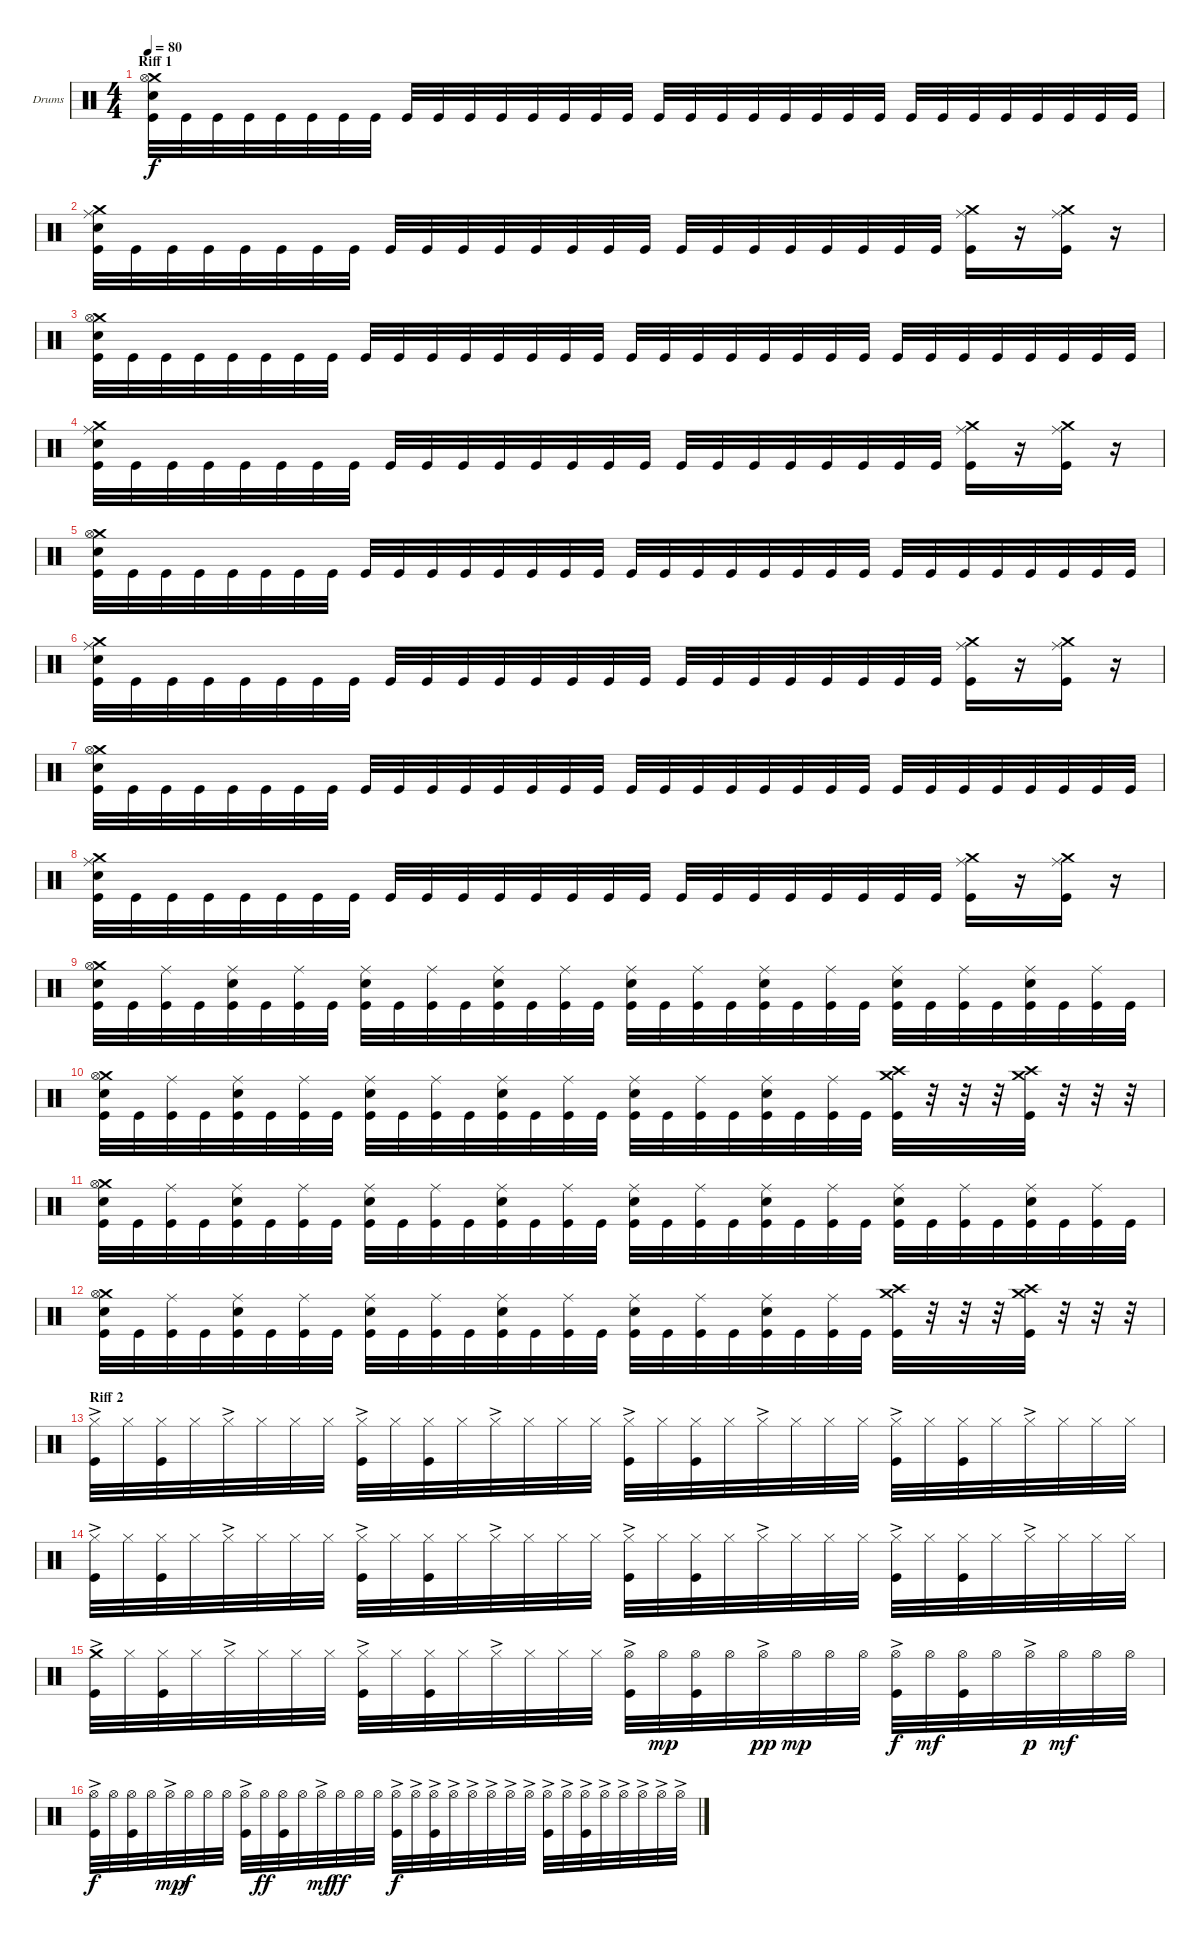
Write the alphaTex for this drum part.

\bracketExtendMode groupsimilarinstruments
\firstSystemTrackNameOrientation horizontal
\otherSystemsTrackNameOrientation horizontal
\track ("Drumkit" "Drums") {instrument percussion}
\staff {score}
\articulation defaults
\ts (4 4)
\section ("" "Riff 1")
\tempo 80
\clef neutral
\ks c
("Crash medium (hit)" "Hi-Hat (open)" "Snare (hit) 2" "Kick (hit)").32{dy f} "Kick (hit)".32 "Kick (hit)".32 "Kick (hit)".32 "Kick (hit)".32 "Kick (hit)".32 "Kick (hit)".32 "Kick (hit)".32 "Kick (hit)".32 "Kick (hit)".32 "Kick (hit)".32 "Kick (hit)".32 "Kick (hit)".32 "Kick (hit)".32 "Kick (hit)".32 "Kick (hit)".32 "Kick (hit)".32 "Kick (hit)".32 "Kick (hit)".32 "Kick (hit)".32 "Kick (hit)".32 "Kick (hit)".32 "Kick (hit)".32 "Kick (hit)".32 "Kick (hit)".32 "Kick (hit)".32 "Kick (hit)".32 "Kick (hit)".32 "Kick (hit)".32 "Kick (hit)".32 "Kick (hit)".32 "Kick (hit)".32 |
("Crash medium (hit)" "Ride (middle)" "Snare (hit) 2" "Kick (hit)").32 "Kick (hit)".32 "Kick (hit)".32 "Kick (hit)".32 "Kick (hit)".32 "Kick (hit)".32 "Kick (hit)".32 "Kick (hit)".32 "Kick (hit)".32 "Kick (hit)".32 "Kick (hit)".32 "Kick (hit)".32 "Kick (hit)".32 "Kick (hit)".32 "Kick (hit)".32 "Kick (hit)".32 "Kick (hit)".32 "Kick (hit)".32 "Kick (hit)".32 "Kick (hit)".32 "Kick (hit)".32 "Kick (hit)".32 "Kick (hit)".32 "Kick (hit)".32 ("Crash medium (hit)" "Ride (middle)" "Kick (hit)").16 r.16 ("Crash medium (hit)" "Ride (middle)" "Kick (hit)").16 r.16 |
("Crash medium (hit)" "Hi-Hat (open)" "Snare (hit) 2" "Kick (hit)").32 "Kick (hit)".32 "Kick (hit)".32 "Kick (hit)".32 "Kick (hit)".32 "Kick (hit)".32 "Kick (hit)".32 "Kick (hit)".32 "Kick (hit)".32 "Kick (hit)".32 "Kick (hit)".32 "Kick (hit)".32 "Kick (hit)".32 "Kick (hit)".32 "Kick (hit)".32 "Kick (hit)".32 "Kick (hit)".32 "Kick (hit)".32 "Kick (hit)".32 "Kick (hit)".32 "Kick (hit)".32 "Kick (hit)".32 "Kick (hit)".32 "Kick (hit)".32 "Kick (hit)".32 "Kick (hit)".32 "Kick (hit)".32 "Kick (hit)".32 "Kick (hit)".32 "Kick (hit)".32 "Kick (hit)".32 "Kick (hit)".32 |
("Crash medium (hit)" "Ride (middle)" "Snare (hit) 2" "Kick (hit)").32 "Kick (hit)".32 "Kick (hit)".32 "Kick (hit)".32 "Kick (hit)".32 "Kick (hit)".32 "Kick (hit)".32 "Kick (hit)".32 "Kick (hit)".32 "Kick (hit)".32 "Kick (hit)".32 "Kick (hit)".32 "Kick (hit)".32 "Kick (hit)".32 "Kick (hit)".32 "Kick (hit)".32 "Kick (hit)".32 "Kick (hit)".32 "Kick (hit)".32 "Kick (hit)".32 "Kick (hit)".32 "Kick (hit)".32 "Kick (hit)".32 "Kick (hit)".32 ("Crash medium (hit)" "Ride (middle)" "Kick (hit)").16 r.16 ("Crash medium (hit)" "Ride (middle)" "Kick (hit)").16 r.16 |
("Crash medium (hit)" "Hi-Hat (open)" "Snare (hit) 2" "Kick (hit)").32 "Kick (hit)".32 "Kick (hit)".32 "Kick (hit)".32 "Kick (hit)".32 "Kick (hit)".32 "Kick (hit)".32 "Kick (hit)".32 "Kick (hit)".32 "Kick (hit)".32 "Kick (hit)".32 "Kick (hit)".32 "Kick (hit)".32 "Kick (hit)".32 "Kick (hit)".32 "Kick (hit)".32 "Kick (hit)".32 "Kick (hit)".32 "Kick (hit)".32 "Kick (hit)".32 "Kick (hit)".32 "Kick (hit)".32 "Kick (hit)".32 "Kick (hit)".32 "Kick (hit)".32 "Kick (hit)".32 "Kick (hit)".32 "Kick (hit)".32 "Kick (hit)".32 "Kick (hit)".32 "Kick (hit)".32 "Kick (hit)".32 |
("Crash medium (hit)" "Ride (middle)" "Snare (hit) 2" "Kick (hit)").32 "Kick (hit)".32 "Kick (hit)".32 "Kick (hit)".32 "Kick (hit)".32 "Kick (hit)".32 "Kick (hit)".32 "Kick (hit)".32 "Kick (hit)".32 "Kick (hit)".32 "Kick (hit)".32 "Kick (hit)".32 "Kick (hit)".32 "Kick (hit)".32 "Kick (hit)".32 "Kick (hit)".32 "Kick (hit)".32 "Kick (hit)".32 "Kick (hit)".32 "Kick (hit)".32 "Kick (hit)".32 "Kick (hit)".32 "Kick (hit)".32 "Kick (hit)".32 ("Crash medium (hit)" "Ride (middle)" "Kick (hit)").16 r.16 ("Crash medium (hit)" "Ride (middle)" "Kick (hit)").16 r.16 |
("Crash medium (hit)" "Hi-Hat (open)" "Snare (hit) 2" "Kick (hit)").32 "Kick (hit)".32 "Kick (hit)".32 "Kick (hit)".32 "Kick (hit)".32 "Kick (hit)".32 "Kick (hit)".32 "Kick (hit)".32 "Kick (hit)".32 "Kick (hit)".32 "Kick (hit)".32 "Kick (hit)".32 "Kick (hit)".32 "Kick (hit)".32 "Kick (hit)".32 "Kick (hit)".32 "Kick (hit)".32 "Kick (hit)".32 "Kick (hit)".32 "Kick (hit)".32 "Kick (hit)".32 "Kick (hit)".32 "Kick (hit)".32 "Kick (hit)".32 "Kick (hit)".32 "Kick (hit)".32 "Kick (hit)".32 "Kick (hit)".32 "Kick (hit)".32 "Kick (hit)".32 "Kick (hit)".32 "Kick (hit)".32 |
("Crash medium (hit)" "Ride (middle)" "Snare (hit) 2" "Kick (hit)").32 "Kick (hit)".32 "Kick (hit)".32 "Kick (hit)".32 "Kick (hit)".32 "Kick (hit)".32 "Kick (hit)".32 "Kick (hit)".32 "Kick (hit)".32 "Kick (hit)".32 "Kick (hit)".32 "Kick (hit)".32 "Kick (hit)".32 "Kick (hit)".32 "Kick (hit)".32 "Kick (hit)".32 "Kick (hit)".32 "Kick (hit)".32 "Kick (hit)".32 "Kick (hit)".32 "Kick (hit)".32 "Kick (hit)".32 "Kick (hit)".32 "Kick (hit)".32 ("Crash medium (hit)" "Ride (middle)" "Kick (hit)").16 r.16 ("Crash medium (hit)" "Ride (middle)" "Kick (hit)").16 r.16 |
("Crash medium (hit)" "Hi-Hat (open)" "Snare (hit) 2" "Kick (hit)").32 "Kick (hit)".32 ("Ride (middle)" "Kick (hit)").32 "Kick (hit)".32 ("Ride (middle)" "Snare (hit) 2" "Kick (hit)").32 "Kick (hit)".32 ("Ride (middle)" "Kick (hit)").32 "Kick (hit)".32 ("Ride (middle)" "Snare (hit) 2" "Kick (hit)").32 "Kick (hit)".32 ("Ride (middle)" "Kick (hit)").32 "Kick (hit)".32 ("Ride (middle)" "Snare (hit) 2" "Kick (hit)").32 "Kick (hit)".32 ("Ride (middle)" "Kick (hit)").32 "Kick (hit)".32 ("Ride (middle)" "Snare (hit) 2" "Kick (hit)").32 "Kick (hit)".32 ("Ride (middle)" "Kick (hit)").32 "Kick (hit)".32 ("Ride (middle)" "Snare (hit) 2" "Kick (hit)").32 "Kick (hit)".32 ("Ride (middle)" "Kick (hit)").32 "Kick (hit)".32 ("Ride (middle)" "Snare (hit) 2" "Kick (hit)").32 "Kick (hit)".32 ("Ride (middle)" "Kick (hit)").32 "Kick (hit)".32 ("Ride (middle)" "Snare (hit) 2" "Kick (hit)").32 "Kick (hit)".32 ("Ride (middle)" "Kick (hit)").32 "Kick (hit)".32 |
("Crash medium (hit)" "Hi-Hat (open)" "Snare (hit) 2" "Kick (hit)").32 "Kick (hit)".32 ("Ride (middle)" "Kick (hit)").32 "Kick (hit)".32 ("Ride (middle)" "Snare (hit) 2" "Kick (hit)").32 "Kick (hit)".32 ("Ride (middle)" "Kick (hit)").32 "Kick (hit)".32 ("Ride (middle)" "Snare (hit) 2" "Kick (hit)").32 "Kick (hit)".32 ("Ride (middle)" "Kick (hit)").32 "Kick (hit)".32 ("Ride (middle)" "Snare (hit) 2" "Kick (hit)").32 "Kick (hit)".32 ("Ride (middle)" "Kick (hit)").32 "Kick (hit)".32 ("Ride (middle)" "Snare (hit) 2" "Kick (hit)").32 "Kick (hit)".32 ("Ride (middle)" "Kick (hit)").32 "Kick (hit)".32 ("Ride (middle)" "Snare (hit) 2" "Kick (hit)").32 "Kick (hit)".32 ("Ride (middle)" "Kick (hit)").32 "Kick (hit)".32 ("Crash medium (hit)" "Crash high (hit)" "Kick (hit)").32 r.32 r.32 r.32 ("Crash medium (hit)" "Crash high (hit)" "Kick (hit)").32 r.32 r.32 r.32 |
("Crash medium (hit)" "Hi-Hat (open)" "Snare (hit) 2" "Kick (hit)").32 "Kick (hit)".32 ("Ride (middle)" "Kick (hit)").32 "Kick (hit)".32 ("Ride (middle)" "Snare (hit) 2" "Kick (hit)").32 "Kick (hit)".32 ("Ride (middle)" "Kick (hit)").32 "Kick (hit)".32 ("Ride (middle)" "Snare (hit) 2" "Kick (hit)").32 "Kick (hit)".32 ("Ride (middle)" "Kick (hit)").32 "Kick (hit)".32 ("Ride (middle)" "Snare (hit) 2" "Kick (hit)").32 "Kick (hit)".32 ("Ride (middle)" "Kick (hit)").32 "Kick (hit)".32 ("Ride (middle)" "Snare (hit) 2" "Kick (hit)").32 "Kick (hit)".32 ("Ride (middle)" "Kick (hit)").32 "Kick (hit)".32 ("Ride (middle)" "Snare (hit) 2" "Kick (hit)").32 "Kick (hit)".32 ("Ride (middle)" "Kick (hit)").32 "Kick (hit)".32 ("Ride (middle)" "Snare (hit) 2" "Kick (hit)").32 "Kick (hit)".32 ("Ride (middle)" "Kick (hit)").32 "Kick (hit)".32 ("Ride (middle)" "Snare (hit) 2" "Kick (hit)").32 "Kick (hit)".32 ("Ride (middle)" "Kick (hit)").32 "Kick (hit)".32 |
("Crash medium (hit)" "Hi-Hat (open)" "Snare (hit) 2" "Kick (hit)").32 "Kick (hit)".32 ("Ride (middle)" "Kick (hit)").32 "Kick (hit)".32 ("Ride (middle)" "Snare (hit) 2" "Kick (hit)").32 "Kick (hit)".32 ("Ride (middle)" "Kick (hit)").32 "Kick (hit)".32 ("Ride (middle)" "Snare (hit) 2" "Kick (hit)").32 "Kick (hit)".32 ("Ride (middle)" "Kick (hit)").32 "Kick (hit)".32 ("Ride (middle)" "Snare (hit) 2" "Kick (hit)").32 "Kick (hit)".32 ("Ride (middle)" "Kick (hit)").32 "Kick (hit)".32 ("Ride (middle)" "Snare (hit) 2" "Kick (hit)").32 "Kick (hit)".32 ("Ride (middle)" "Kick (hit)").32 "Kick (hit)".32 ("Ride (middle)" "Snare (hit) 2" "Kick (hit)").32 "Kick (hit)".32 ("Ride (middle)" "Kick (hit)").32 "Kick (hit)".32 ("Crash medium (hit)" "Crash high (hit)" "Kick (hit)").32 r.32 r.32 r.32 ("Crash medium (hit)" "Crash high (hit)" "Kick (hit)").32 r.32 r.32 r.32 |
\section ("" "Riff 2")
("Hi-Hat (closed)"{ac} "Kick (hit)").32 "Hi-Hat (closed)".32 ("Hi-Hat (closed)" "Kick (hit)").32 "Hi-Hat (closed)".32 "Hi-Hat (closed)"{ac}.32 "Hi-Hat (closed)".32 "Hi-Hat (closed)".32 "Hi-Hat (closed)".32 ("Hi-Hat (closed)"{ac} "Kick (hit)").32 "Hi-Hat (closed)".32 ("Hi-Hat (closed)" "Kick (hit)").32 "Hi-Hat (closed)".32 "Hi-Hat (closed)"{ac}.32 "Hi-Hat (closed)".32 "Hi-Hat (closed)".32 "Hi-Hat (closed)".32 ("Hi-Hat (closed)"{ac} "Kick (hit)").32 "Hi-Hat (closed)".32 ("Hi-Hat (closed)" "Kick (hit)").32 "Hi-Hat (closed)".32 "Hi-Hat (closed)"{ac}.32 "Hi-Hat (closed)".32 "Hi-Hat (closed)".32 "Hi-Hat (closed)".32 ("Hi-Hat (closed)"{ac} "Kick (hit)").32 "Hi-Hat (closed)".32 ("Hi-Hat (closed)" "Kick (hit)").32 "Hi-Hat (closed)".32 "Hi-Hat (closed)"{ac}.32 "Hi-Hat (closed)".32 "Hi-Hat (closed)".32 "Hi-Hat (closed)".32 |
("Hi-Hat (closed)"{ac} "Kick (hit)").32 "Hi-Hat (closed)".32 ("Hi-Hat (closed)" "Kick (hit)").32 "Hi-Hat (closed)".32 "Hi-Hat (closed)"{ac}.32 "Hi-Hat (closed)".32 "Hi-Hat (closed)".32 "Hi-Hat (closed)".32 ("Hi-Hat (closed)"{ac} "Kick (hit)").32 "Hi-Hat (closed)".32 ("Hi-Hat (closed)" "Kick (hit)").32 "Hi-Hat (closed)".32 "Hi-Hat (closed)"{ac}.32 "Hi-Hat (closed)".32 "Hi-Hat (closed)".32 "Hi-Hat (closed)".32 ("Hi-Hat (closed)"{ac} "Kick (hit)").32 "Hi-Hat (closed)".32 ("Hi-Hat (closed)" "Kick (hit)").32 "Hi-Hat (closed)".32 "Hi-Hat (closed)"{ac}.32 "Hi-Hat (closed)".32 "Hi-Hat (closed)".32 "Hi-Hat (closed)".32 ("Hi-Hat (closed)"{ac} "Kick (hit)").32 "Hi-Hat (closed)".32 ("Hi-Hat (closed)" "Kick (hit)").32 "Hi-Hat (closed)".32 "Hi-Hat (closed)"{ac}.32 "Hi-Hat (closed)".32 "Hi-Hat (closed)".32 "Hi-Hat (closed)".32 |
("Crash medium (hit)"{ac} "Kick (hit)").32 "Hi-Hat (closed)".32 ("Hi-Hat (closed)" "Kick (hit)").32 "Hi-Hat (closed)".32 "Hi-Hat (closed)"{ac}.32 "Hi-Hat (closed)".32 "Hi-Hat (closed)".32 "Hi-Hat (closed)".32 ("Hi-Hat (closed)"{ac} "Kick (hit)").32 "Hi-Hat (closed)".32 ("Hi-Hat (closed)" "Kick (hit)").32 "Hi-Hat (closed)".32 "Hi-Hat (closed)"{ac}.32 "Hi-Hat (closed)".32 "Hi-Hat (closed)".32 "Hi-Hat (closed)".32 ("Hi-Hat (open)"{ac} "Kick (hit)").32 "Hi-Hat (open)".32{dy mp} ("Hi-Hat (open)" "Kick (hit)").32 "Hi-Hat (open)".32 "Hi-Hat (open)"{ac}.32{dy pp} "Hi-Hat (open)".32{dy mp} "Hi-Hat (open)".32 "Hi-Hat (open)".32 ("Hi-Hat (open)"{ac} "Kick (hit)").32{dy f} "Hi-Hat (open)".32{dy mf} ("Hi-Hat (open)" "Kick (hit)").32 "Hi-Hat (open)".32 "Hi-Hat (open)"{ac}.32{dy p} "Hi-Hat (open)".32{dy mf} "Hi-Hat (open)".32 "Hi-Hat (open)".32 |
("Hi-Hat (open)"{ac} "Kick (hit)").32{dy f} "Hi-Hat (open)".32 ("Hi-Hat (open)" "Kick (hit)").32 "Hi-Hat (open)".32 "Hi-Hat (open)"{ac}.32{dy mp} "Hi-Hat (open)".32{dy f} "Hi-Hat (open)".32 "Hi-Hat (open)".32 ("Hi-Hat (open)"{ac} "Kick (hit)").32 "Hi-Hat (open)".32{dy ff} ("Hi-Hat (open)" "Kick (hit)").32 "Hi-Hat (open)".32 "Hi-Hat (open)"{ac}.32{dy mf} "Hi-Hat (open)".32{dy ff} "Hi-Hat (open)".32 "Hi-Hat (open)".32 ("Hi-Hat (open)"{ac} "Kick (hit)").32{dy f} "Hi-Hat (open)"{ac}.32 ("Hi-Hat (open)"{ac} "Kick (hit)").32 "Hi-Hat (open)"{ac}.32 "Hi-Hat (open)"{ac}.32 "Hi-Hat (open)"{ac}.32 "Hi-Hat (open)"{ac}.32 "Hi-Hat (open)"{ac}.32 ("Hi-Hat (open)"{ac} "Kick (hit)").32 "Hi-Hat (open)"{ac}.32 ("Hi-Hat (open)"{ac} "Kick (hit)").32 "Hi-Hat (open)"{ac}.32 "Hi-Hat (open)"{ac}.32 "Hi-Hat (open)"{ac}.32 "Hi-Hat (open)"{ac}.32 "Hi-Hat (open)"{ac}.32
